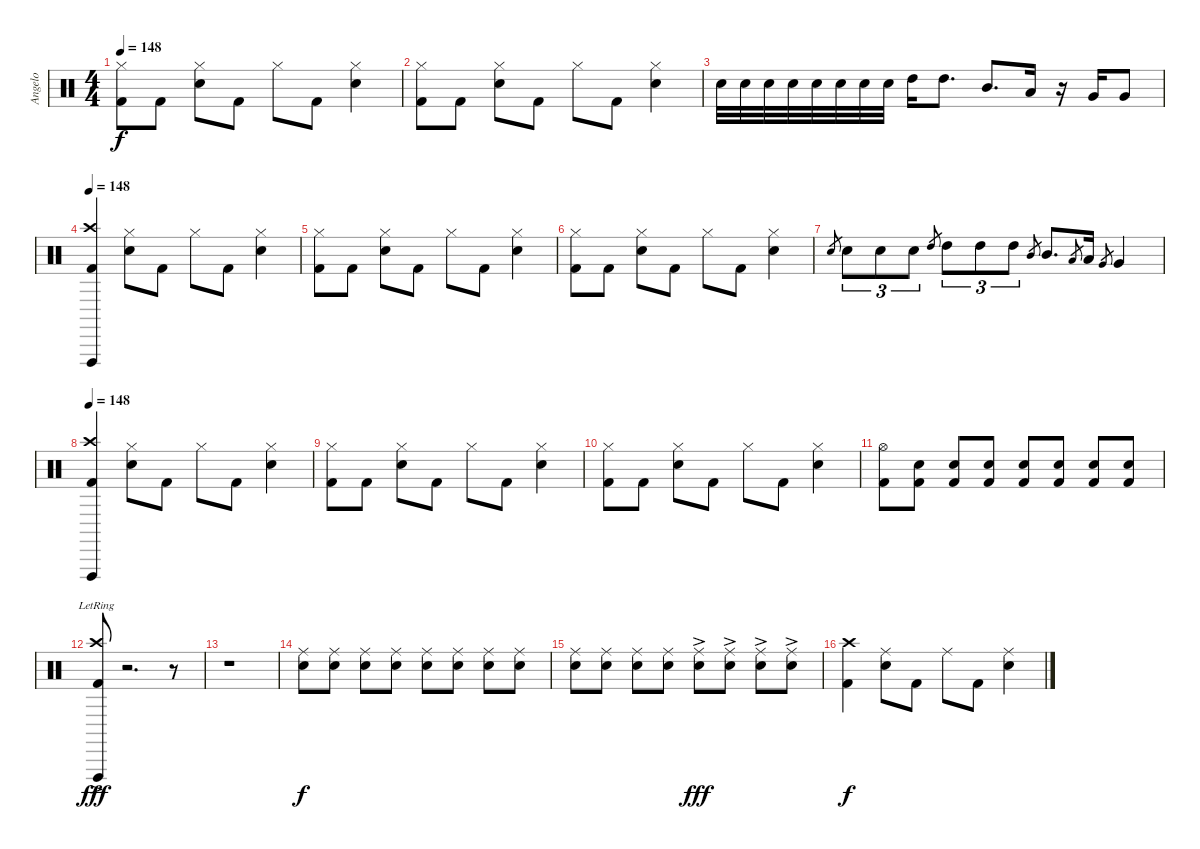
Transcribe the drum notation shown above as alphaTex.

\track ("Angelo" "Angelo") {instrument percussion}
\staff {score}
\articulation defaults
\ts (4 4)
\tempo 148
\clef neutral
\ks c
("Hi-Hat (closed)" "Kick (hit) 2").8{dy f} "Kick (hit) 2".8 ("Hi-Hat (closed)" "Snare (hit) 2").8 "Kick (hit) 2".8 "Hi-Hat (closed)".8 "Kick (hit) 2".8 ("Hi-Hat (closed)" "Snare (hit) 2").4 |
("Hi-Hat (closed)" "Kick (hit) 2").8 "Kick (hit) 2".8 ("Hi-Hat (closed)" "Snare (hit) 2").8 "Kick (hit) 2".8 "Hi-Hat (closed)".8 "Kick (hit) 2".8 ("Hi-Hat (closed)" "Snare (hit) 2").4 |
"Snare (hit) 2".32 "Snare (hit) 2".32 "Snare (hit) 2".32 "Snare (hit) 2".32 "Snare (hit) 2".32 "Snare (hit) 2".32 "Snare (hit) 2".32 "Snare (hit) 2".32 "High Tom (hit)".16 "High Tom (hit)".8{d} "Mid Tom (hit)".8{d} "Low Tom (hit)".16 r.16 "Very Low Tom (hit)".16 "Very Low Tom (hit)".8 |
\tempo 148
("Crash high (hit)" "Vibraslap (hit)" "Kick (hit) 2").4 ("Hi-Hat (closed)" "Snare (hit) 2").8 "Kick (hit) 2".8 "Hi-Hat (closed)".8 "Kick (hit) 2".8 ("Hi-Hat (closed)" "Snare (hit) 2").4 |
("Hi-Hat (closed)" "Kick (hit) 2").8 "Kick (hit) 2".8 ("Hi-Hat (closed)" "Snare (hit) 2").8 "Kick (hit) 2".8 "Hi-Hat (closed)".8 "Kick (hit) 2".8 ("Hi-Hat (closed)" "Snare (hit) 2").4 |
("Hi-Hat (closed)" "Kick (hit) 2").8 "Kick (hit) 2".8 ("Hi-Hat (closed)" "Snare (hit) 2").8 "Kick (hit) 2".8 "Hi-Hat (closed)".8 "Kick (hit) 2".8 ("Hi-Hat (closed)" "Snare (hit) 2").4 |
"Snare (hit) 2".8{gr} "Snare (hit) 2".8{tu (3 2)} "Snare (hit) 2".8{tu (3 2)} "Snare (hit) 2".8{tu (3 2)} "High Tom (hit)".8{gr} "High Tom (hit)".8{tu (3 2)} "High Tom (hit)".8{tu (3 2)} "High Tom (hit)".8{tu (3 2)} "Mid Tom (hit)".8{gr} "Mid Tom (hit)".8{d} "Low Tom (hit)".8{gr} "Low Tom (hit)".16 "Very Low Tom (hit)".8{gr} "Very Low Tom (hit)".4 |
\tempo 148
("Crash high (hit)" "Vibraslap (hit)" "Kick (hit) 2").4 ("Hi-Hat (closed)" "Snare (hit) 2").8 "Kick (hit) 2".8 "Hi-Hat (closed)".8 "Kick (hit) 2".8 ("Hi-Hat (closed)" "Snare (hit) 2").4 |
("Hi-Hat (closed)" "Kick (hit) 2").8 "Kick (hit) 2".8 ("Hi-Hat (closed)" "Snare (hit) 2").8 "Kick (hit) 2".8 "Hi-Hat (closed)".8 "Kick (hit) 2".8 ("Hi-Hat (closed)" "Snare (hit) 2").4 |
("Hi-Hat (closed)" "Kick (hit) 2").8 "Kick (hit) 2".8 ("Hi-Hat (closed)" "Snare (hit) 2").8 "Kick (hit) 2".8 "Hi-Hat (closed)".8 "Kick (hit) 2".8 ("Hi-Hat (closed)" "Snare (hit) 2").4 |
("Hi-Hat (open)" "Kick (hit) 2").8 ("Snare (hit) 2" "Kick (hit) 2").8 ("Snare (hit) 2" "Kick (hit) 2").8 ("Snare (hit) 2" "Kick (hit) 2").8 ("Snare (hit) 2" "Kick (hit) 2").8 ("Snare (hit) 2" "Kick (hit) 2").8 ("Snare (hit) 2" "Kick (hit) 2").8 ("Snare (hit) 2" "Kick (hit) 2").8 |
("Crash high (hit)"{ac} "Vibraslap (hit)"{lr} "Kick (hit) 2"{ac}).8{dy fff} r.2{d} r.8 |
r.1{volume 0} |
("Ride (middle)" "Snare (hit) 2").8{dy f volume 16} ("Ride (middle)" "Snare (hit) 2").8 ("Ride (middle)" "Snare (hit) 2").8 ("Ride (middle)" "Snare (hit) 2").8 ("Ride (middle)" "Snare (hit) 2").8 ("Ride (middle)" "Snare (hit) 2").8 ("Ride (middle)" "Snare (hit) 2").8 ("Ride (middle)" "Snare (hit) 2").8 |
("Ride (middle)" "Snare (hit) 2").8 ("Ride (middle)" "Snare (hit) 2").8 ("Ride (middle)" "Snare (hit) 2").8 ("Ride (middle)" "Snare (hit) 2").8 ("Ride (middle)"{ac} "Snare (hit) 2"{ac}).8{dy fff} ("Ride (middle)"{ac} "Snare (hit) 2"{ac}).8 ("Ride (middle)"{ac} "Snare (hit) 2"{ac}).8 ("Ride (middle)"{ac} "Snare (hit) 2"{ac}).8 |
("Crash high (hit)" "Kick (hit) 2").4{dy f} ("Ride (middle)" "Snare (hit) 2").8 "Kick (hit) 2".8 "Ride (middle)".8 "Kick (hit) 2".8 ("Ride (middle)" "Snare (hit) 2").4
